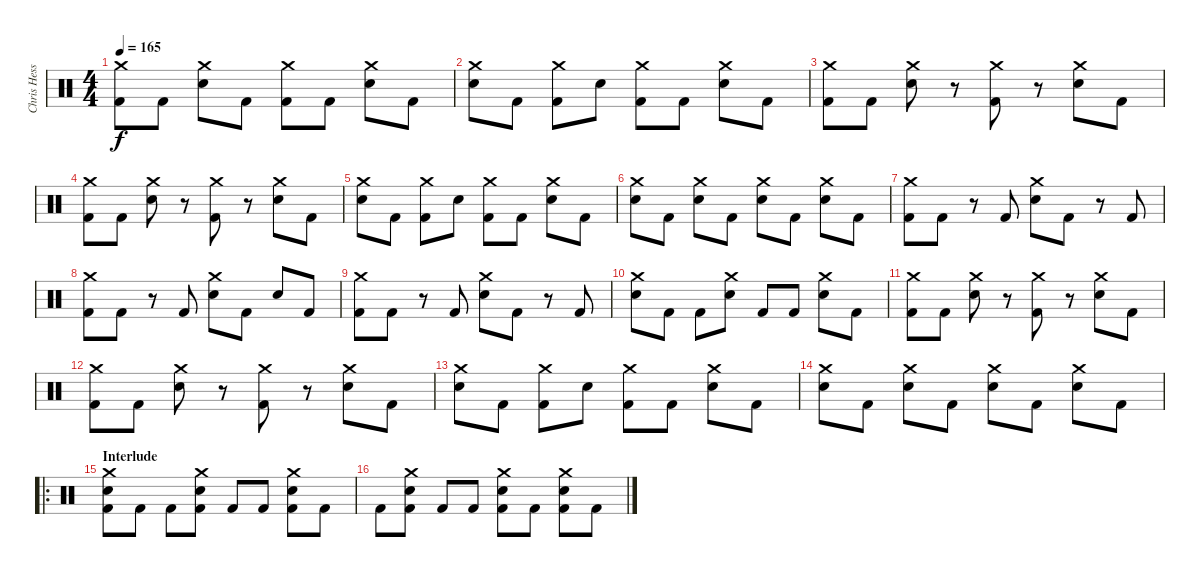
\track ("Chris Hesse" "Chris Hess") {instrument percussion}
\staff {score}
\articulation defaults
\ts (4 4)
\tempo 165
\clef neutral
\ks c
("Crash medium (hit)" "Kick (hit) 2").8{dy f} "Kick (hit) 2".8 ("Crash medium (hit)" "Snare (hit) 2").8 "Kick (hit) 2".8 ("Crash medium (hit)" "Kick (hit) 2").8 "Kick (hit) 2".8 ("Crash medium (hit)" "Snare (hit) 2").8 "Kick (hit) 2".8 |
("Crash medium (hit)" "Snare (hit) 2").8 "Kick (hit) 2".8 ("Crash medium (hit)" "Kick (hit) 2").8 "Snare (hit) 2".8 ("Crash medium (hit)" "Kick (hit) 2").8 "Kick (hit) 2".8 ("Crash medium (hit)" "Snare (hit) 2").8 "Kick (hit) 2".8 |
("Crash medium (hit)" "Kick (hit) 2").8 "Kick (hit) 2".8 ("Crash medium (hit)" "Snare (hit) 2").8 r.8 ("Crash medium (hit)" "Kick (hit) 2").8 r.8 ("Crash medium (hit)" "Snare (hit) 2").8 "Kick (hit) 2".8 |
("Crash medium (hit)" "Kick (hit) 2").8 "Kick (hit) 2".8 ("Crash medium (hit)" "Snare (hit) 2").8 r.8 ("Crash medium (hit)" "Kick (hit) 2").8 r.8 ("Crash medium (hit)" "Snare (hit) 2").8 "Kick (hit) 2".8 |
("Crash medium (hit)" "Snare (hit) 2").8 "Kick (hit) 2".8 ("Crash medium (hit)" "Kick (hit) 2").8 "Snare (hit) 2".8 ("Crash medium (hit)" "Kick (hit) 2").8 "Kick (hit) 2".8 ("Crash medium (hit)" "Snare (hit) 2").8 "Kick (hit) 2".8 |
("Crash medium (hit)" "Snare (hit) 2").8 "Kick (hit) 2".8 ("Crash medium (hit)" "Snare (hit) 2").8 "Kick (hit) 2".8 ("Crash medium (hit)" "Snare (hit) 2").8 "Kick (hit) 2".8 ("Crash medium (hit)" "Snare (hit) 2").8 "Kick (hit) 2".8 |
("Crash medium (hit)" "Kick (hit) 2").8 "Kick (hit) 2".8 r.8 "Kick (hit) 2".8 ("Crash medium (hit)" "Snare (hit) 2").8 "Kick (hit) 2".8 r.8 "Kick (hit) 2".8 |
("Crash medium (hit)" "Kick (hit) 2").8 "Kick (hit) 2".8 r.8 "Kick (hit) 2".8 ("Crash medium (hit)" "Snare (hit) 2").8 "Kick (hit) 2".8 "Snare (hit) 2".8 "Kick (hit) 2".8 |
("Crash medium (hit)" "Kick (hit) 2").8 "Kick (hit) 2".8 r.8 "Kick (hit) 2".8 ("Crash medium (hit)" "Snare (hit) 2").8 "Kick (hit) 2".8 r.8 "Kick (hit) 2".8 |
("Crash medium (hit)" "Snare (hit) 2").8 "Kick (hit) 2".8 "Kick (hit) 2".8 ("Crash medium (hit)" "Snare (hit) 2").8 "Kick (hit) 2".8 "Kick (hit) 2".8 ("Crash medium (hit)" "Snare (hit) 2").8 "Kick (hit) 2".8 |
("Crash medium (hit)" "Kick (hit) 2").8 "Kick (hit) 2".8 ("Crash medium (hit)" "Snare (hit) 2").8 r.8 ("Crash medium (hit)" "Kick (hit) 2").8 r.8 ("Crash medium (hit)" "Snare (hit) 2").8 "Kick (hit) 2".8 |
("Crash medium (hit)" "Kick (hit) 2").8 "Kick (hit) 2".8 ("Crash medium (hit)" "Snare (hit) 2").8 r.8 ("Crash medium (hit)" "Kick (hit) 2").8 r.8 ("Crash medium (hit)" "Snare (hit) 2").8 "Kick (hit) 2".8 |
("Crash medium (hit)" "Snare (hit) 2").8 "Kick (hit) 2".8 ("Crash medium (hit)" "Kick (hit) 2").8 "Snare (hit) 2".8 ("Crash medium (hit)" "Kick (hit) 2").8 "Kick (hit) 2".8 ("Crash medium (hit)" "Snare (hit) 2").8 "Kick (hit) 2".8 |
("Crash medium (hit)" "Snare (hit) 2").8 "Kick (hit) 2".8 ("Crash medium (hit)" "Snare (hit) 2").8 "Kick (hit) 2".8 ("Crash medium (hit)" "Snare (hit) 2").8 "Kick (hit) 2".8 ("Crash medium (hit)" "Snare (hit) 2").8 "Kick (hit) 2".8 |
\ro
\section ("" "Interlude")
("Crash medium (hit)" "Snare (hit) 2" "Kick (hit) 2").8 "Kick (hit) 2".8 "Kick (hit) 2".8 ("Crash medium (hit)" "Snare (hit) 2" "Kick (hit) 2").8 "Kick (hit) 2".8 "Kick (hit) 2".8 ("Crash medium (hit)" "Snare (hit) 2" "Kick (hit) 2").8 "Kick (hit) 2".8 |
"Kick (hit) 2".8 ("Crash medium (hit)" "Snare (hit) 2" "Kick (hit) 2").8 "Kick (hit) 2".8 "Kick (hit) 2".8 ("Crash medium (hit)" "Snare (hit) 2" "Kick (hit) 2").8 "Kick (hit) 2".8 ("Crash medium (hit)" "Snare (hit) 2" "Kick (hit) 2").8 "Kick (hit) 2".8
